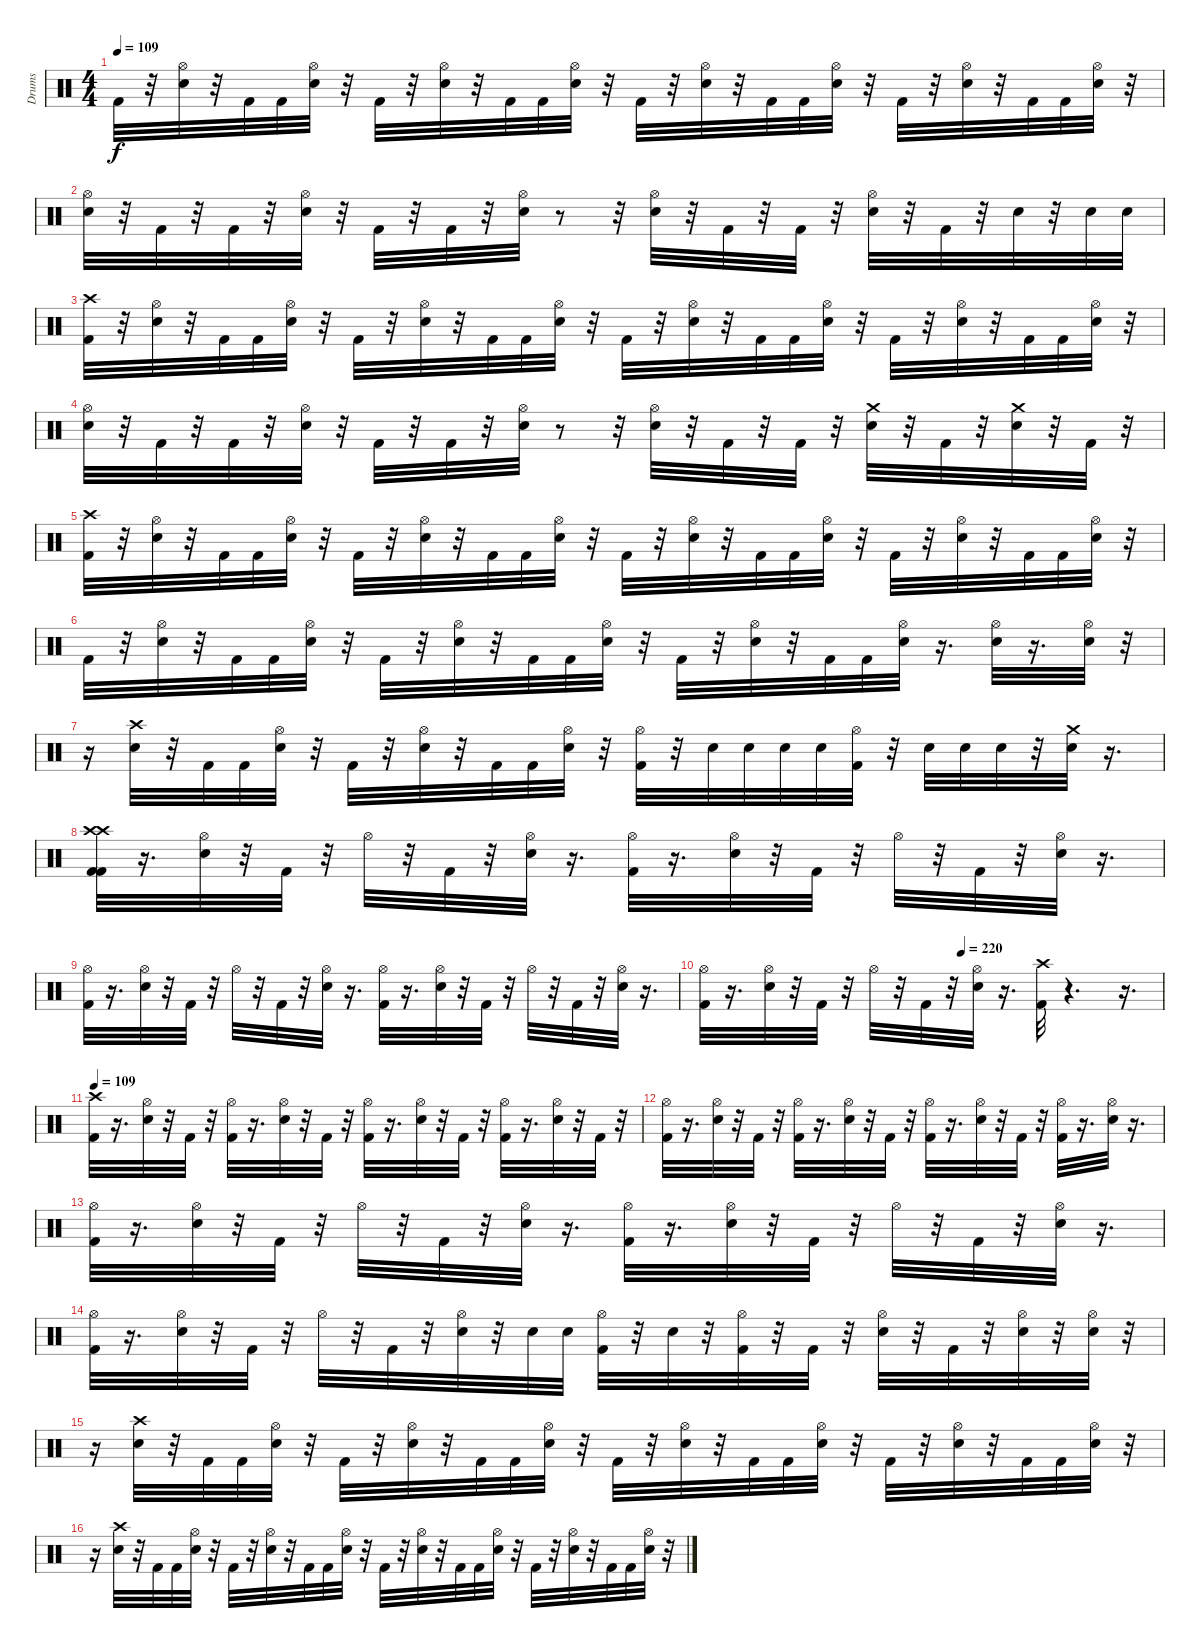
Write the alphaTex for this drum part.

\track ("Drums" "Drums") {instrument percussion}
\staff {score}
\articulation defaults
\ts (4 4)
\tempo 109
\clef neutral
\ks c "Kick (hit) 2".32{dy f}
r.32 ("Hi-Hat (open)" "Electric Snare (hit)").32 r.32 "Kick (hit) 2".32 "Kick (hit) 2".32 ("Hi-Hat (open)" "Electric Snare (hit)").32 r.32 "Kick (hit) 2".32 r.32 ("Hi-Hat (open)" "Electric Snare (hit)").32 r.32 "Kick (hit) 2".32 "Kick (hit) 2".32 ("Hi-Hat (open)" "Electric Snare (hit)").32 r.32 "Kick (hit) 2".32 r.32 ("Hi-Hat (open)" "Electric Snare (hit)").32 r.32 "Kick (hit) 2".32 "Kick (hit) 2".32 ("Hi-Hat (open)" "Electric Snare (hit)").32 r.32 "Kick (hit) 2".32 r.32 ("Hi-Hat (open)" "Electric Snare (hit)").32 r.32 "Kick (hit) 2".32 "Kick (hit) 2".32 ("Hi-Hat (open)" "Electric Snare (hit)").32 r.32 |
("Hi-Hat (open)" "Electric Snare (hit)").32 r.32 "Kick (hit) 2".32 r.32 "Kick (hit) 2".32 r.32 ("Hi-Hat (open)" "Electric Snare (hit)").32 r.32 "Kick (hit) 2".32 r.32 "Kick (hit) 2".32 r.32 ("Hi-Hat (open)" "Electric Snare (hit)").32 r.8 r.32 ("Hi-Hat (open)" "Electric Snare (hit)").32 r.32 "Kick (hit) 2".32 r.32 "Kick (hit) 2".32 r.32 ("Hi-Hat (open)" "Electric Snare (hit)").32 r.32 "Kick (hit) 2".32 r.32 "Electric Snare (hit)".32 r.32 "Electric Snare (hit)".32 "Electric Snare (hit)".32 |
("Crash high (hit)" "Kick (hit) 2").32 r.32 ("Hi-Hat (open)" "Electric Snare (hit)").32 r.32 "Kick (hit) 2".32 "Kick (hit) 2".32 ("Hi-Hat (open)" "Electric Snare (hit)").32 r.32 "Kick (hit) 2".32 r.32 ("Hi-Hat (open)" "Electric Snare (hit)").32 r.32 "Kick (hit) 2".32 "Kick (hit) 2".32 ("Hi-Hat (open)" "Electric Snare (hit)").32 r.32 "Kick (hit) 2".32 r.32 ("Hi-Hat (open)" "Electric Snare (hit)").32 r.32 "Kick (hit) 2".32 "Kick (hit) 2".32 ("Hi-Hat (open)" "Electric Snare (hit)").32 r.32 "Kick (hit) 2".32 r.32 ("Hi-Hat (open)" "Electric Snare (hit)").32 r.32 "Kick (hit) 2".32 "Kick (hit) 2".32 ("Hi-Hat (open)" "Electric Snare (hit)").32 r.32 |
("Hi-Hat (open)" "Electric Snare (hit)").32 r.32 "Kick (hit) 2".32 r.32 "Kick (hit) 2".32 r.32 ("Hi-Hat (open)" "Electric Snare (hit)").32 r.32 "Kick (hit) 2".32 r.32 "Kick (hit) 2".32 r.32 ("Hi-Hat (open)" "Electric Snare (hit)").32 r.8 r.32 ("Hi-Hat (open)" "Electric Snare (hit)").32 r.32 "Kick (hit) 2".32 r.32 "Kick (hit) 2".32 r.32 ("Crash medium (hit)" "Electric Snare (hit)").32 r.32 "Kick (hit) 2".32 r.32 ("Crash medium (hit)" "Electric Snare (hit)").32 r.32 "Kick (hit) 2".32 r.32 |
("Crash high (hit)" "Kick (hit) 2").32 r.32 ("Hi-Hat (open)" "Electric Snare (hit)").32 r.32 "Kick (hit) 2".32 "Kick (hit) 2".32 ("Hi-Hat (open)" "Electric Snare (hit)").32 r.32 "Kick (hit) 2".32 r.32 ("Hi-Hat (open)" "Electric Snare (hit)").32 r.32 "Kick (hit) 2".32 "Kick (hit) 2".32 ("Hi-Hat (open)" "Electric Snare (hit)").32 r.32 "Kick (hit) 2".32 r.32 ("Hi-Hat (open)" "Electric Snare (hit)").32 r.32 "Kick (hit) 2".32 "Kick (hit) 2".32 ("Hi-Hat (open)" "Electric Snare (hit)").32 r.32 "Kick (hit) 2".32 r.32 ("Hi-Hat (open)" "Electric Snare (hit)").32 r.32 "Kick (hit) 2".32 "Kick (hit) 2".32 ("Hi-Hat (open)" "Electric Snare (hit)").32 r.32 |
"Kick (hit) 2".32 r.32 ("Hi-Hat (open)" "Electric Snare (hit)").32 r.32 "Kick (hit) 2".32 "Kick (hit) 2".32 ("Hi-Hat (open)" "Electric Snare (hit)").32 r.32 "Kick (hit) 2".32 r.32 ("Hi-Hat (open)" "Electric Snare (hit)").32 r.32 "Kick (hit) 2".32 "Kick (hit) 2".32 ("Hi-Hat (open)" "Electric Snare (hit)").32 r.32 "Kick (hit) 2".32 r.32 ("Hi-Hat (open)" "Electric Snare (hit)").32 r.32 "Kick (hit) 2".32 "Kick (hit) 2".32 ("Hi-Hat (open)" "Electric Snare (hit)").32 r.16{d} ("Hi-Hat (open)" "Electric Snare (hit)").32 r.16{d} ("Hi-Hat (open)" "Electric Snare (hit)").32 r.32 |
r.16 ("Crash high (hit)" "Electric Snare (hit)").32 r.32 "Kick (hit) 2".32 "Kick (hit) 2".32 ("Hi-Hat (open)" "Electric Snare (hit)").32 r.32 "Kick (hit) 2".32 r.32 ("Electric Snare (hit)" "Hi-Hat (open)").32 r.32 "Kick (hit) 2".32 "Kick (hit) 2".32 ("Hi-Hat (open)" "Electric Snare (hit)").32 r.32 ("Hi-Hat (open)" "Kick (hit) 2").32 r.32 "Electric Snare (hit)".32 "Electric Snare (hit)".32 "Electric Snare (hit)".32 "Electric Snare (hit)".32 ("Hi-Hat (open)" "Kick (hit) 2").32 r.32 "Electric Snare (hit)".32 "Electric Snare (hit)".32 "Electric Snare (hit)".32 r.32 ("Crash medium (hit)" "Electric Snare (hit)").32 r.16{d} |
("Crash high (hit)" "Kick (hit) 2" "Crash high (hit)" "Kick (hit) 2").32 r.16{d} ("Hi-Hat (open)" "Electric Snare (hit)").32 r.32 "Kick (hit) 2".32 r.32 "Hi-Hat (open)".32 r.32 "Kick (hit) 2".32 r.32 ("Hi-Hat (open)" "Electric Snare (hit)").32 r.16{d} ("Hi-Hat (open)" "Kick (hit) 2").32 r.16{d} ("Hi-Hat (open)" "Electric Snare (hit)").32 r.32 "Kick (hit) 2".32 r.32 "Hi-Hat (open)".32 r.32 "Kick (hit) 2".32 r.32 ("Hi-Hat (open)" "Electric Snare (hit)").32 r.16{d} |
("Hi-Hat (open)" "Kick (hit) 2").32 r.16{d} ("Hi-Hat (open)" "Electric Snare (hit)").32 r.32 "Kick (hit) 2".32 r.32 "Hi-Hat (open)".32 r.32 "Kick (hit) 2".32 r.32 ("Hi-Hat (open)" "Electric Snare (hit)").32 r.16{d} ("Hi-Hat (open)" "Kick (hit) 2").32 r.16{d} ("Hi-Hat (open)" "Electric Snare (hit)").32 r.32 "Kick (hit) 2".32 r.32 "Hi-Hat (open)".32 r.32 "Kick (hit) 2".32 r.32 ("Hi-Hat (open)" "Electric Snare (hit)").32 r.16{d} |
\tempo (220 0.5625)
("Hi-Hat (open)" "Kick (hit) 2").32 r.16{d} ("Hi-Hat (open)" "Electric Snare (hit)").32 r.32 "Kick (hit) 2".32 r.32 "Hi-Hat (open)".32 r.32 "Kick (hit) 2".32 r.32 ("Hi-Hat (open)" "Electric Snare (hit)").32 r.16{d} ("Crash high (hit)" "Kick (hit) 2").32 r.4{d} r.16{d} |
\tempo 109
("Crash high (hit)" "Kick (hit) 2").32 r.16{d} ("Hi-Hat (open)" "Electric Snare (hit)").32 r.32 "Kick (hit) 2".32 r.32 ("Hi-Hat (open)" "Kick (hit) 2").32 r.16{d} ("Hi-Hat (open)" "Electric Snare (hit)").32 r.32 "Kick (hit) 2".32 r.32 ("Hi-Hat (open)" "Kick (hit) 2").32 r.16{d} ("Hi-Hat (open)" "Electric Snare (hit)").32 r.32 "Kick (hit) 2".32 r.32 ("Hi-Hat (open)" "Kick (hit) 2").32 r.16{d} ("Hi-Hat (open)" "Electric Snare (hit)").32 r.32 "Kick (hit) 2".32 r.32 |
("Hi-Hat (open)" "Kick (hit) 2").32 r.16{d} ("Hi-Hat (open)" "Electric Snare (hit)").32 r.32 "Kick (hit) 2".32 r.32 ("Hi-Hat (open)" "Kick (hit) 2").32 r.16{d} ("Hi-Hat (open)" "Electric Snare (hit)").32 r.32 "Kick (hit) 2".32 r.32 ("Hi-Hat (open)" "Kick (hit) 2").32 r.16{d} ("Hi-Hat (open)" "Electric Snare (hit)").32 r.32 "Kick (hit) 2".32 r.32 ("Hi-Hat (open)" "Kick (hit) 2").32 r.16{d} ("Hi-Hat (open)" "Electric Snare (hit)").32 r.16{d} |
("Hi-Hat (open)" "Kick (hit) 2").32 r.16{d} ("Hi-Hat (open)" "Electric Snare (hit)").32 r.32 "Kick (hit) 2".32 r.32 "Hi-Hat (open)".32 r.32 "Kick (hit) 2".32 r.32 ("Hi-Hat (open)" "Electric Snare (hit)").32 r.16{d} ("Hi-Hat (open)" "Kick (hit) 2").32 r.16{d} ("Hi-Hat (open)" "Electric Snare (hit)").32 r.32 "Kick (hit) 2".32 r.32 "Hi-Hat (open)".32 r.32 "Kick (hit) 2".32 r.32 ("Hi-Hat (open)" "Electric Snare (hit)").32 r.16{d} |
("Hi-Hat (open)" "Kick (hit) 2").32 r.16{d} ("Hi-Hat (open)" "Electric Snare (hit)").32 r.32 "Kick (hit) 2".32 r.32 "Hi-Hat (open)".32 r.32 "Kick (hit) 2".32 r.32 ("Hi-Hat (open)" "Electric Snare (hit)").32 r.32 "Electric Snare (hit)".32 "Electric Snare (hit)".32 ("Hi-Hat (open)" "Kick (hit) 2").32 r.32 "Electric Snare (hit)".32 r.32 ("Hi-Hat (open)" "Kick (hit) 2").32 r.32 "Kick (hit) 2".32 r.32 ("Hi-Hat (open)" "Electric Snare (hit)").32 r.32 "Kick (hit) 2".32 r.32 ("Hi-Hat (open)" "Electric Snare (hit)").32 r.32 ("Hi-Hat (open)" "Electric Snare (hit)").32 r.32 |
r.16 ("Crash high (hit)" "Electric Snare (hit)").32 r.32 "Kick (hit) 2".32 "Kick (hit) 2".32 ("Hi-Hat (open)" "Electric Snare (hit)").32 r.32 "Kick (hit) 2".32 r.32 ("Hi-Hat (open)" "Electric Snare (hit)").32 r.32 "Kick (hit) 2".32 "Kick (hit) 2".32 ("Hi-Hat (open)" "Electric Snare (hit)").32 r.32 "Kick (hit) 2".32 r.32 ("Hi-Hat (open)" "Electric Snare (hit)").32 r.32 "Kick (hit) 2".32 "Kick (hit) 2".32 ("Hi-Hat (open)" "Electric Snare (hit)").32 r.32 "Kick (hit) 2".32 r.32 ("Hi-Hat (open)" "Electric Snare (hit)").32 r.32 "Kick (hit) 2".32 "Kick (hit) 2".32 ("Hi-Hat (open)" "Electric Snare (hit)").32 r.32 |
r.16 ("Crash high (hit)" "Electric Snare (hit)").32 r.32 "Kick (hit) 2".32 "Kick (hit) 2".32 ("Hi-Hat (open)" "Electric Snare (hit)").32 r.32 "Kick (hit) 2".32 r.32 ("Hi-Hat (open)" "Electric Snare (hit)").32 r.32 "Kick (hit) 2".32 "Kick (hit) 2".32 ("Hi-Hat (open)" "Electric Snare (hit)").32 r.32 "Kick (hit) 2".32 r.32 ("Hi-Hat (open)" "Electric Snare (hit)").32 r.32 "Kick (hit) 2".32 "Kick (hit) 2".32 ("Hi-Hat (open)" "Electric Snare (hit)").32 r.32 "Kick (hit) 2".32 r.32 ("Hi-Hat (open)" "Electric Snare (hit)").32 r.32 "Kick (hit) 2".32 "Kick (hit) 2".32 ("Hi-Hat (open)" "Electric Snare (hit)").32 r.32
